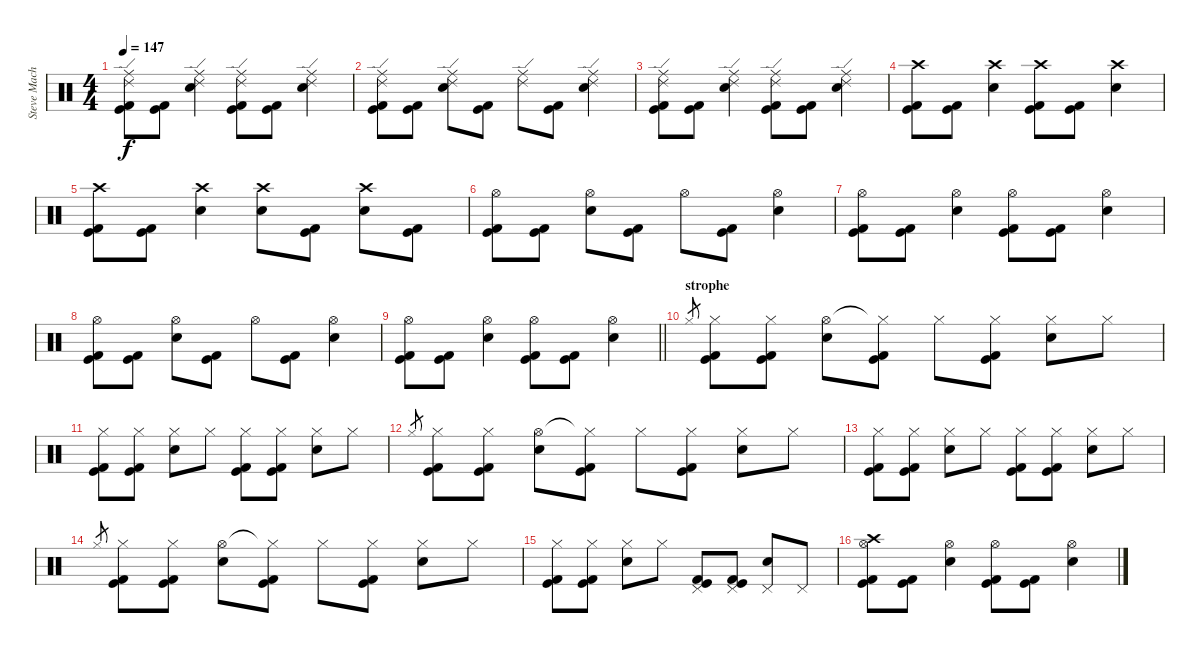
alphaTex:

\track ("Steve Machine West" "Steve Mach") {instrument percussion}
\staff {score}
\articulation defaults
\ts (4 4)
\tempo 147
\clef neutral
\ks c
("Ride (middle)" "Ride (edge) 2" "Kick (hit)" "Kick (hit) 2").8{dy f} ("Kick (hit)" "Kick (hit) 2").8 ("Ride (middle)" "Ride (edge) 2" "Electric Snare (hit)").4 ("Ride (middle)" "Ride (edge) 2" "Kick (hit)" "Kick (hit) 2").8 ("Kick (hit)" "Kick (hit) 2").8 ("Ride (middle)" "Ride (edge) 2" "Electric Snare (hit)").4 |
("Ride (middle)" "Ride (edge) 2" "Kick (hit)" "Kick (hit) 2").8 ("Kick (hit)" "Kick (hit) 2").8 ("Ride (middle)" "Ride (edge) 2" "Electric Snare (hit)").8 ("Kick (hit)" "Kick (hit) 2").8 ("Ride (middle)" "Ride (edge) 2").8 ("Kick (hit)" "Kick (hit) 2").8 ("Ride (middle)" "Ride (edge) 2" "Electric Snare (hit)").4 |
("Ride (middle)" "Ride (edge) 2" "Kick (hit)" "Kick (hit) 2").8 ("Kick (hit)" "Kick (hit) 2").8 ("Ride (middle)" "Ride (edge) 2" "Electric Snare (hit)").4 ("Ride (middle)" "Ride (edge) 2" "Kick (hit)" "Kick (hit) 2").8 ("Kick (hit)" "Kick (hit) 2").8 ("Ride (middle)" "Ride (edge) 2" "Electric Snare (hit)").4 |
("Crash high (hit)" "Kick (hit)" "Kick (hit) 2").8 ("Kick (hit)" "Kick (hit) 2").8 ("Crash high (hit)" "Electric Snare (hit)").4 ("Crash high (hit)" "Kick (hit)" "Kick (hit) 2").8 ("Kick (hit)" "Kick (hit) 2").8 ("Crash high (hit)" "Electric Snare (hit)").4 |
("Crash high (hit)" "Kick (hit)" "Kick (hit) 2").8 ("Kick (hit)" "Kick (hit) 2").8 ("Crash high (hit)" "Electric Snare (hit)").4 ("Crash high (hit)" "Electric Snare (hit)").8 ("Kick (hit)" "Kick (hit) 2").8 ("Crash high (hit)" "Electric Snare (hit)").8 ("Kick (hit)" "Kick (hit) 2").8 |
("Hi-Hat (open)" "Kick (hit)" "Kick (hit) 2").8 ("Kick (hit)" "Kick (hit) 2").8 ("Hi-Hat (open)" "Electric Snare (hit)").8 ("Kick (hit)" "Kick (hit) 2").8 "Hi-Hat (open)".8 ("Kick (hit)" "Kick (hit) 2").8 ("Hi-Hat (open)" "Electric Snare (hit)").4 |
("Hi-Hat (open)" "Kick (hit)" "Kick (hit) 2").8 ("Kick (hit)" "Kick (hit) 2").8 ("Hi-Hat (open)" "Electric Snare (hit)").4 ("Hi-Hat (open)" "Kick (hit)" "Kick (hit) 2").8 ("Kick (hit)" "Kick (hit) 2").8 ("Hi-Hat (open)" "Electric Snare (hit)").4 |
("Hi-Hat (open)" "Kick (hit)" "Kick (hit) 2").8 ("Kick (hit)" "Kick (hit) 2").8 ("Hi-Hat (open)" "Electric Snare (hit)").8 ("Kick (hit)" "Kick (hit) 2").8 "Hi-Hat (open)".8 ("Kick (hit)" "Kick (hit) 2").8 ("Hi-Hat (open)" "Electric Snare (hit)").4 |
\barLineRight lightlight
("Hi-Hat (open)" "Kick (hit)" "Kick (hit) 2").8 ("Kick (hit)" "Kick (hit) 2").8 ("Hi-Hat (open)" "Electric Snare (hit)").4 ("Hi-Hat (open)" "Kick (hit)" "Kick (hit) 2").8 ("Kick (hit)" "Kick (hit) 2").8 ("Hi-Hat (open)" "Electric Snare (hit)").4 |
\section ("" "strophe")
"Hi-Hat (closed)".8{gr} ("Hi-Hat (closed)" "Kick (hit)" "Kick (hit) 2").8 ("Hi-Hat (closed)" "Kick (hit)" "Kick (hit) 2").8 ("Hi-Hat (open)" "Electric Snare (hit)").8 ("Hi-Hat (closed)"{t} "Kick (hit)" "Kick (hit) 2").8 "Hi-Hat (closed)".8 ("Hi-Hat (closed)" "Kick (hit)" "Kick (hit) 2").8 ("Hi-Hat (closed)" "Electric Snare (hit)").8 "Hi-Hat (closed)".8 |
("Hi-Hat (closed)" "Kick (hit)" "Kick (hit) 2").8 ("Hi-Hat (closed)" "Kick (hit)" "Kick (hit) 2").8 ("Hi-Hat (closed)" "Electric Snare (hit)").8 "Hi-Hat (closed)".8 ("Hi-Hat (closed)" "Kick (hit)" "Kick (hit) 2").8 ("Hi-Hat (closed)" "Kick (hit)" "Kick (hit) 2").8 ("Hi-Hat (closed)" "Electric Snare (hit)").8 "Hi-Hat (closed)".8 |
"Hi-Hat (closed)".8{gr} ("Hi-Hat (closed)" "Kick (hit)" "Kick (hit) 2").8 ("Hi-Hat (closed)" "Kick (hit)" "Kick (hit) 2").8 ("Hi-Hat (open)" "Electric Snare (hit)").8 ("Hi-Hat (closed)"{t} "Kick (hit)" "Kick (hit) 2").8 "Hi-Hat (closed)".8 ("Hi-Hat (closed)" "Kick (hit)" "Kick (hit) 2").8 ("Hi-Hat (closed)" "Electric Snare (hit)").8 "Hi-Hat (closed)".8 |
("Hi-Hat (closed)" "Kick (hit)" "Kick (hit) 2").8 ("Hi-Hat (closed)" "Kick (hit)" "Kick (hit) 2").8 ("Hi-Hat (closed)" "Electric Snare (hit)").8 "Hi-Hat (closed)".8 ("Hi-Hat (closed)" "Kick (hit)" "Kick (hit) 2").8 ("Hi-Hat (closed)" "Kick (hit)" "Kick (hit) 2").8 ("Hi-Hat (closed)" "Electric Snare (hit)").8 "Hi-Hat (closed)".8 |
"Hi-Hat (closed)".8{gr} ("Hi-Hat (closed)" "Kick (hit)" "Kick (hit) 2").8 ("Hi-Hat (closed)" "Kick (hit)" "Kick (hit) 2").8 ("Hi-Hat (open)" "Electric Snare (hit)").8 ("Hi-Hat (closed)"{t} "Kick (hit)" "Kick (hit) 2").8 "Hi-Hat (closed)".8 ("Hi-Hat (closed)" "Kick (hit)" "Kick (hit) 2").8 ("Hi-Hat (closed)" "Electric Snare (hit)").8 "Hi-Hat (closed)".8 |
("Hi-Hat (closed)" "Kick (hit)" "Kick (hit) 2").8 ("Hi-Hat (closed)" "Kick (hit)" "Kick (hit) 2").8 ("Hi-Hat (closed)" "Electric Snare (hit)").8 "Hi-Hat (closed)".8 ("Pedal Hi-Hat (hit)" "Kick (hit)" "Kick (hit) 2").8 ("Pedal Hi-Hat (hit)" "Kick (hit)" "Kick (hit) 2").8 ("Pedal Hi-Hat (hit)" "Electric Snare (hit)").8 "Pedal Hi-Hat (hit)".8 |
("Crash high (hit)" "Hi-Hat (open)" "Kick (hit)" "Kick (hit) 2").8 ("Kick (hit)" "Kick (hit) 2").8 ("Hi-Hat (open)" "Electric Snare (hit)").4 ("Hi-Hat (open)" "Kick (hit)" "Kick (hit) 2").8 ("Kick (hit)" "Kick (hit) 2").8 ("Hi-Hat (open)" "Electric Snare (hit)").4
